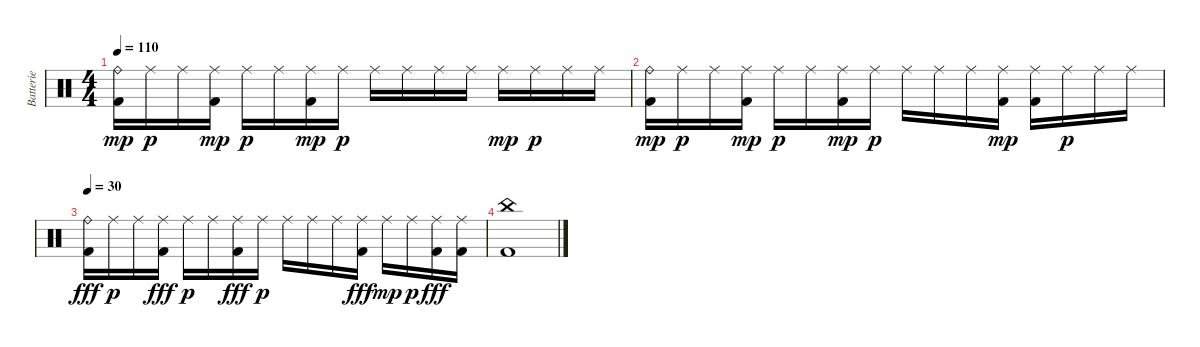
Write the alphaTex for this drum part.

\track ("Batterie" "Batterie") {instrument percussion}
\staff {score}
\articulation defaults
\ts (4 4)
\tempo 110
\clef neutral
\ks c
("Ride (bell)" "Kick (hit) 2").16{dy mp} "Ride (middle)".16{dy p} "Ride (middle)".16 ("Ride (middle)" "Kick (hit) 2").16{dy mp} "Ride (middle)".16{dy p} "Ride (middle)".16 ("Ride (middle)" "Kick (hit) 2").16{dy mp} "Ride (middle)".16{dy p} "Ride (middle)".16 "Ride (middle)".16 "Ride (middle)".16 "Ride (middle)".16 "Ride (middle)".16{dy mp} "Ride (middle)".16{dy p} "Ride (middle)".16 "Ride (middle)".16 |
("Ride (bell)" "Kick (hit) 2").16{dy mp} "Ride (middle)".16{dy p} "Ride (middle)".16 ("Ride (middle)" "Kick (hit) 2").16{dy mp} "Ride (middle)".16{dy p} "Ride (middle)".16 ("Ride (middle)" "Kick (hit) 2").16{dy mp} "Ride (middle)".16{dy p} "Ride (middle)".16 "Ride (middle)".16 "Ride (middle)".16 ("Ride (middle)" "Kick (hit) 2").16{dy mp} ("Ride (middle)" "Kick (hit) 2").16 "Ride (middle)".16{dy p} "Ride (middle)".16 "Ride (middle)".16 |
\tempo 30
("Ride (bell)" "Kick (hit) 2").16{dy fff} "Ride (middle)".16{dy p} "Ride (middle)".16 ("Ride (middle)" "Kick (hit) 2").16{dy fff} "Ride (middle)".16{dy p} "Ride (middle)".16 ("Ride (middle)" "Kick (hit) 2").16{dy fff} "Ride (middle)".16{dy p} "Ride (middle)".16 "Ride (middle)".16 "Ride (middle)".16 ("Ride (middle)" "Kick (hit) 2").16{dy fff} "Ride (middle)".16{dy mp} "Ride (middle)".16{dy p} ("Ride (middle)" "Kick (hit) 2").16{dy fff} ("Ride (middle)" "Kick (hit) 2").16 |
("China (hit)" "Kick (hit) 2").1
